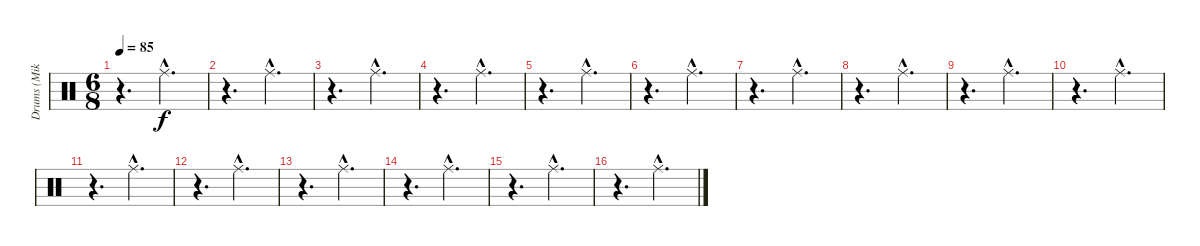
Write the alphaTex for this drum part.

\track ("Drums (Mike Joyce)" "Drums (Mik") {instrument percussion}
\staff {score}
\articulation defaults
\ts (6 8)
\tempo 85
\clef neutral
\ks c
r.4{d dy f} "Ride (middle)"{hac}.4{d} |
r.4{d} "Ride (middle)"{hac}.4{d} |
r.4{d} "Ride (middle)"{hac}.4{d} |
r.4{d} "Ride (middle)"{hac}.4{d} |
r.4{d} "Ride (middle)"{hac}.4{d} |
r.4{d} "Ride (middle)"{hac}.4{d} |
r.4{d} "Ride (middle)"{hac}.4{d} |
r.4{d} "Ride (middle)"{hac}.4{d} |
r.4{d} "Ride (middle)"{hac}.4{d} |
r.4{d} "Ride (middle)"{hac}.4{d} |
r.4{d} "Ride (middle)"{hac}.4{d} |
r.4{d} "Ride (middle)"{hac}.4{d} |
r.4{d} "Ride (middle)"{hac}.4{d} |
r.4{d} "Ride (middle)"{hac}.4{d} |
r.4{d} "Ride (middle)"{hac}.4{d} |
r.4{d} "Ride (middle)"{hac}.4{d}
